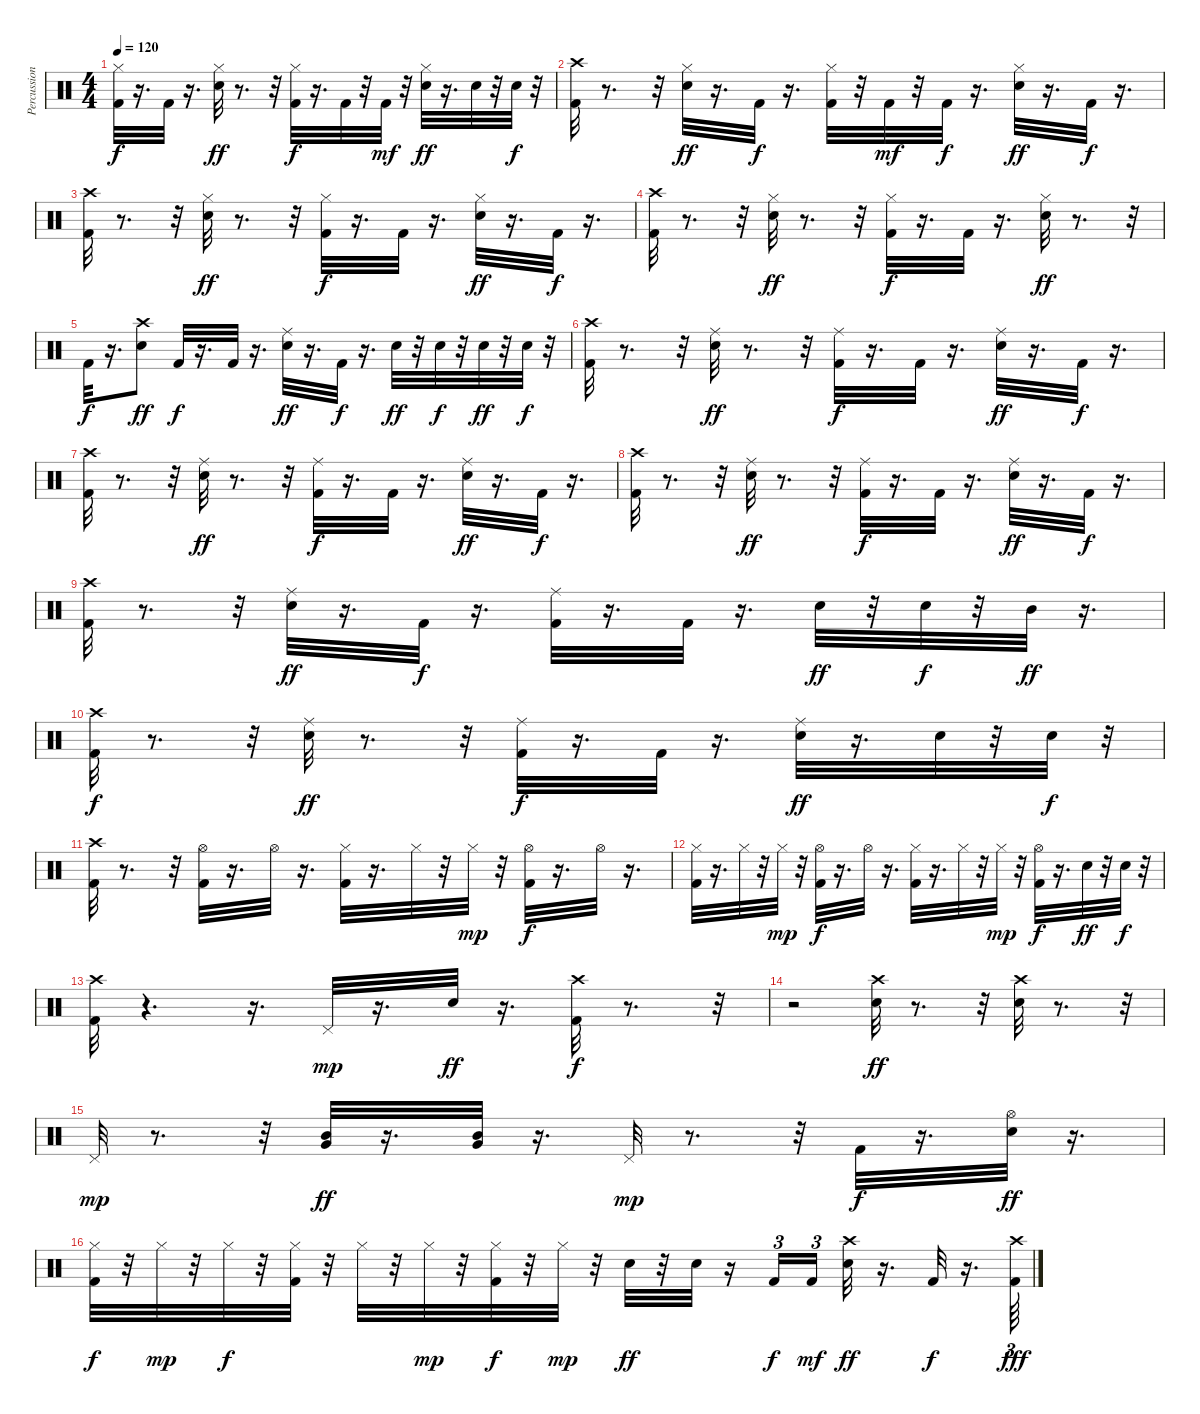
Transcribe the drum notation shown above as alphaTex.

\track ("Percussion" "Percussion") {instrument percussion}
\staff {score}
\articulation defaults
\ts (4 4)
\tempo 120
\clef neutral
\ks c
("Hi-Hat (closed)" "Kick (hit) 2").32{dy f} r.16{d} "Kick (hit) 2".32 r.16{d} ("Snare (hit) 2" "Hi-Hat (closed)").32{dy ff} r.8{d} r.32 ("Hi-Hat (closed)" "Kick (hit) 2").32{dy f} r.16{d} "Kick (hit) 2".32 r.32 "Kick (hit) 2".32{dy mf} r.32 ("Hi-Hat (closed)" "Snare (hit) 2").32{dy ff} r.16{d} "Snare (hit) 2".32 r.32 "Snare (hit) 2".32{dy f} r.32 |
("Crash high (hit)" "Kick (hit) 2").32 r.8{d} r.32 ("Snare (hit) 2" "Hi-Hat (closed)").32{dy ff} r.16{d} "Kick (hit) 2".32{dy f} r.16{d} ("Hi-Hat (closed)" "Kick (hit) 2").32 r.32 "Kick (hit) 2".32{dy mf} r.32 "Kick (hit) 2".32{dy f} r.16{d} ("Snare (hit) 2" "Hi-Hat (closed)").32{dy ff} r.16{d} "Kick (hit) 2".32{dy f} r.16{d} |
("Crash high (hit)" "Kick (hit) 2").32 r.8{d} r.32 ("Snare (hit) 2" "Hi-Hat (closed)").32{dy ff} r.8{d} r.32 ("Hi-Hat (closed)" "Kick (hit) 2").32{dy f} r.16{d} "Kick (hit) 2".32 r.16{d} ("Snare (hit) 2" "Hi-Hat (closed)").32{dy ff} r.16{d} "Kick (hit) 2".32{dy f} r.16{d} |
("Crash high (hit)" "Kick (hit) 2").32 r.8{d} r.32 ("Snare (hit) 2" "Hi-Hat (closed)").32{dy ff} r.8{d} r.32 ("Hi-Hat (closed)" "Kick (hit) 2").32{dy f} r.16{d} "Kick (hit) 2".32 r.16{d} ("Snare (hit) 2" "Hi-Hat (closed)").32{dy ff} r.8{d} r.32 |
"Kick (hit) 2".32{dy f} r.16{d} ("Snare (hit) 2" "Crash high (hit)").8{dy ff} "Kick (hit) 2".32{dy f} r.16{d} "Kick (hit) 2".32 r.16{d} ("Ride (middle)" "Snare (hit) 2").32{dy ff} r.16{d} "Kick (hit) 2".32{dy f} r.16{d} "Snare (hit) 2".32{dy ff} r.32 "Snare (hit) 2".32{dy f} r.32 "Snare (hit) 2".32{dy ff} r.32 "Snare (hit) 2".32{dy f} r.32 |
("Crash high (hit)" "Kick (hit) 2").32 r.8{d} r.32 ("Snare (hit) 2" "Ride (middle)").32{dy ff} r.8{d} r.32 ("Ride (middle)" "Kick (hit) 2").32{dy f} r.16{d} "Kick (hit) 2".32 r.16{d} ("Snare (hit) 2" "Ride (middle)").32{dy ff} r.16{d} "Kick (hit) 2".32{dy f} r.16{d} |
("Crash high (hit)" "Kick (hit) 2").32 r.8{d} r.32 ("Snare (hit) 2" "Ride (middle)").32{dy ff} r.8{d} r.32 ("Ride (middle)" "Kick (hit) 2").32{dy f} r.16{d} "Kick (hit) 2".32 r.16{d} ("Snare (hit) 2" "Ride (middle)").32{dy ff} r.16{d} "Kick (hit) 2".32{dy f} r.16{d} |
("Crash high (hit)" "Kick (hit) 2").32 r.8{d} r.32 ("Snare (hit) 2" "Ride (middle)").32{dy ff} r.8{d} r.32 ("Ride (middle)" "Kick (hit) 2").32{dy f} r.16{d} "Kick (hit) 2".32 r.16{d} ("Snare (hit) 2" "Ride (middle)").32{dy ff} r.16{d} "Kick (hit) 2".32{dy f} r.16{d} |
("Crash high (hit)" "Kick (hit) 2").32 r.8{d} r.32 ("Snare (hit) 2" "Ride (middle)").32{dy ff} r.16{d} "Kick (hit) 2".32{dy f} r.16{d} ("Ride (middle)" "Kick (hit) 2").32 r.16{d} "Kick (hit) 2".32 r.16{d} "Snare (hit) 2".32{dy ff} r.32 "Snare (hit) 2".32{dy f} r.32 "Mid Tom (hit)".32{dy ff} r.16{d} |
("Crash high (hit)" "Kick (hit) 2").32{dy f} r.8{d} r.32 ("Snare (hit) 2" "Ride (middle)").32{dy ff} r.8{d} r.32 ("Ride (middle)" "Kick (hit) 2").32{dy f} r.16{d} "Kick (hit) 2".32 r.16{d} ("Snare (hit) 2" "Ride (middle)").32{dy ff} r.16{d} "Snare (hit) 2".32 r.32 "Snare (hit) 2".32{dy f} r.32 |
("Crash high (hit)" "Kick (hit) 2").32 r.8{d} r.32 ("Hi-Hat (open)" "Kick (hit) 2").32 r.16{d} "Hi-Hat (open)".32 r.16{d} ("Hi-Hat (closed)" "Kick (hit) 2").32 r.16{d} "Hi-Hat (closed)".32 r.32 "Hi-Hat (closed)".32{dy mp} r.32 ("Hi-Hat (open)" "Kick (hit) 2").32{dy f} r.16{d} "Hi-Hat (open)".32 r.16{d} |
("Hi-Hat (closed)" "Kick (hit) 2").32 r.16{d} "Hi-Hat (closed)".32 r.32 "Hi-Hat (closed)".32{dy mp} r.32 ("Hi-Hat (open)" "Kick (hit) 2").32{dy f} r.16{d} "Hi-Hat (open)".32 r.16{d} ("Hi-Hat (closed)" "Kick (hit) 2").32 r.16{d} "Hi-Hat (closed)".32 r.32 "Hi-Hat (closed)".32{dy mp} r.32 ("Hi-Hat (open)" "Kick (hit) 2").32{dy f} r.16{d} "Snare (hit) 2".32{dy ff} r.32 "Snare (hit) 2".32{dy f} r.32 |
("Crash high (hit)" "Kick (hit) 2").32 r.4{d} r.16{d} "Pedal Hi-Hat (hit)".32{dy mp} r.16{d} "Snare (hit) 2".32{dy ff} r.16{d} ("Crash high (hit)" "Kick (hit) 2").32{dy f} r.8{d} r.32 |
r.2 ("Crash high (hit)" "Snare (hit) 2").32{dy ff} r.8{d} r.32 ("Crash high (hit)" "Snare (hit) 2").32 r.8{d} r.32 |
"Pedal Hi-Hat (hit)".32{dy mp} r.8{d} r.32 ("Very Low Tom (hit)" "Mid Tom (hit)").32{dy ff} r.16{d} ("Mid Tom (hit)" "Very Low Tom (hit)").32 r.16{d} "Pedal Hi-Hat (hit)".32{dy mp} r.8{d} r.32 "Kick (hit) 2".32{dy f} r.16{d} ("Snare (hit) 2" "Hi-Hat (open)").32{dy ff} r.16{d} |
("Hi-Hat (closed)" "Kick (hit) 2").32{dy f} r.32 "Hi-Hat (closed)".32{dy mp} r.32 "Hi-Hat (closed)".32{dy f} r.32 ("Hi-Hat (closed)" "Kick (hit) 2").32 r.32 "Hi-Hat (closed)".32 r.32 "Hi-Hat (closed)".32{dy mp} r.32 ("Hi-Hat (closed)" "Kick (hit) 2").32{dy f} r.32 "Hi-Hat (closed)".32{dy mp} r.32 "Snare (hit) 2".32{dy ff} r.32 "Snare (hit) 2".32 r.16 "Kick (hit) 2".16{tu (3 2) dy f} "Kick (hit) 2".16{tu (3 2) dy mf beam splitsecondary} ("Crash high (hit)" "Snare (hit) 2").32{dy ff} r.16{d} "Kick (hit) 2".32{dy f} r.16{d} ("Crash high (hit)" "Kick (hit) 2").64{tu (3 2) dy fff}
